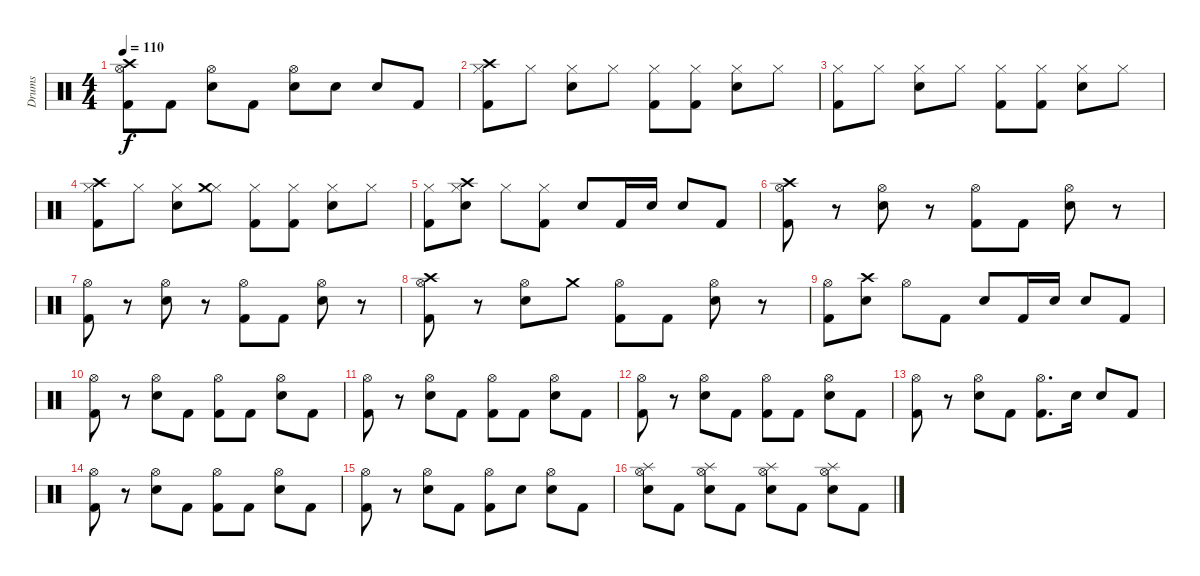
\track ("Drums" "Drums") {instrument percussion}
\staff {score}
\articulation defaults
\ts (4 4)
\tempo 110
\clef neutral
\ks c
("Hi-Hat (open)" "Kick (hit) 2" "Crash high (hit)").8{dy f} "Kick (hit) 2".8 ("Hi-Hat (open)" "Snare (hit) 2").8 "Kick (hit) 2".8 ("Hi-Hat (open)" "Snare (hit) 2").8 "Snare (hit) 2".8 "Snare (hit) 2".8 "Kick (hit) 2".8 |
("Hi-Hat (closed)" "Kick (hit) 2" "Crash high (hit)").8 "Hi-Hat (closed)".8 ("Hi-Hat (closed)" "Snare (hit) 2").8 "Hi-Hat (closed)".8 ("Hi-Hat (closed)" "Kick (hit) 2").8 ("Hi-Hat (closed)" "Kick (hit) 2").8 ("Hi-Hat (closed)" "Snare (hit) 2").8 "Hi-Hat (closed)".8 |
("Hi-Hat (closed)" "Kick (hit) 2").8 "Hi-Hat (closed)".8 ("Hi-Hat (closed)" "Snare (hit) 2").8 "Hi-Hat (closed)".8 ("Hi-Hat (closed)" "Kick (hit) 2").8 ("Hi-Hat (closed)" "Kick (hit) 2").8 ("Hi-Hat (closed)" "Snare (hit) 2").8 "Hi-Hat (closed)".8 |
("Hi-Hat (closed)" "Kick (hit) 2" "Crash high (hit)").8 "Hi-Hat (closed)".8 ("Hi-Hat (closed)" "Snare (hit) 2").8 ("Hi-Hat (closed)" "Crash medium (hit)").8 ("Hi-Hat (closed)" "Kick (hit) 2").8 ("Hi-Hat (closed)" "Kick (hit) 2").8 ("Hi-Hat (closed)" "Snare (hit) 2").8 "Hi-Hat (closed)".8 |
("Hi-Hat (closed)" "Kick (hit) 2").8 ("Hi-Hat (closed)" "Snare (hit) 2" "Crash high (hit)").8 "Hi-Hat (closed)".8 ("Hi-Hat (closed)" "Kick (hit) 2").8 "Snare (hit) 2".8 "Kick (hit) 2".16 "Snare (hit) 2".16 "Snare (hit) 2".8 "Kick (hit) 2".8 |
("Hi-Hat (open)" "Kick (hit) 2" "Crash high (hit)").8 r.8 ("Hi-Hat (open)" "Snare (hit) 2").8 r.8 ("Hi-Hat (open)" "Kick (hit) 2").8 "Kick (hit) 2".8 ("Hi-Hat (open)" "Snare (hit) 2").8 r.8 |
("Hi-Hat (open)" "Kick (hit) 2").8 r.8 ("Hi-Hat (open)" "Snare (hit) 2").8 r.8 ("Hi-Hat (open)" "Kick (hit) 2").8 "Kick (hit) 2".8 ("Hi-Hat (open)" "Snare (hit) 2").8 r.8 |
("Hi-Hat (open)" "Kick (hit) 2" "Crash high (hit)").8 r.8 ("Hi-Hat (open)" "Snare (hit) 2").8 "Crash medium (hit)".8 ("Hi-Hat (open)" "Kick (hit) 2").8 "Kick (hit) 2".8 ("Hi-Hat (open)" "Snare (hit) 2").8 r.8 |
("Hi-Hat (open)" "Kick (hit) 2").8 ("Snare (hit) 2" "Crash high (hit)").8 "Hi-Hat (open)".8 "Kick (hit) 2".8 "Snare (hit) 2".8 "Kick (hit) 2".16 "Snare (hit) 2".16 "Snare (hit) 2".8 "Kick (hit) 2".8 |
("Hi-Hat (open)" "Kick (hit) 2").8 r.8 ("Hi-Hat (open)" "Snare (hit) 2").8 "Kick (hit) 2".8 ("Hi-Hat (open)" "Kick (hit) 2").8 "Kick (hit) 2".8 ("Hi-Hat (open)" "Snare (hit) 2").8 "Kick (hit) 2".8 |
("Hi-Hat (open)" "Kick (hit) 2").8 r.8 ("Hi-Hat (open)" "Snare (hit) 2").8 "Kick (hit) 2".8 ("Hi-Hat (open)" "Kick (hit) 2").8 "Kick (hit) 2".8 ("Hi-Hat (open)" "Snare (hit) 2").8 "Kick (hit) 2".8 |
("Hi-Hat (open)" "Kick (hit) 2").8 r.8 ("Hi-Hat (open)" "Snare (hit) 2").8 "Kick (hit) 2".8 ("Hi-Hat (open)" "Kick (hit) 2").8 "Kick (hit) 2".8 ("Hi-Hat (open)" "Snare (hit) 2").8 "Kick (hit) 2".8 |
("Hi-Hat (open)" "Kick (hit) 2").8 r.8 ("Hi-Hat (open)" "Snare (hit) 2").8 "Kick (hit) 2".8 ("Hi-Hat (open)" "Kick (hit) 2").8{d} "Snare (hit) 2".16 "Snare (hit) 2".8 "Kick (hit) 2".8 |
("Hi-Hat (open)" "Kick (hit) 2").8 r.8 ("Hi-Hat (open)" "Snare (hit) 2").8 "Kick (hit) 2".8 ("Hi-Hat (open)" "Kick (hit) 2").8 "Kick (hit) 2".8 ("Hi-Hat (open)" "Snare (hit) 2").8 "Kick (hit) 2".8 |
("Hi-Hat (open)" "Kick (hit) 2").8 r.8 ("Hi-Hat (open)" "Snare (hit) 2").8 "Kick (hit) 2".8 ("Hi-Hat (open)" "Kick (hit) 2").8 "Snare (hit) 2".8 ("Hi-Hat (open)" "Snare (hit) 2").8 "Kick (hit) 2".8 |
("Hi-Hat (open)" "Snare (hit) 2" "Splash (hit)").8 "Kick (hit) 2".8 ("Hi-Hat (open)" "Snare (hit) 2" "Splash (hit)").8 "Kick (hit) 2".8 ("Hi-Hat (open)" "Snare (hit) 2" "Splash (hit)").8 "Kick (hit) 2".8 ("Hi-Hat (open)" "Snare (hit) 2" "Splash (hit)").8 "Kick (hit) 2".8
